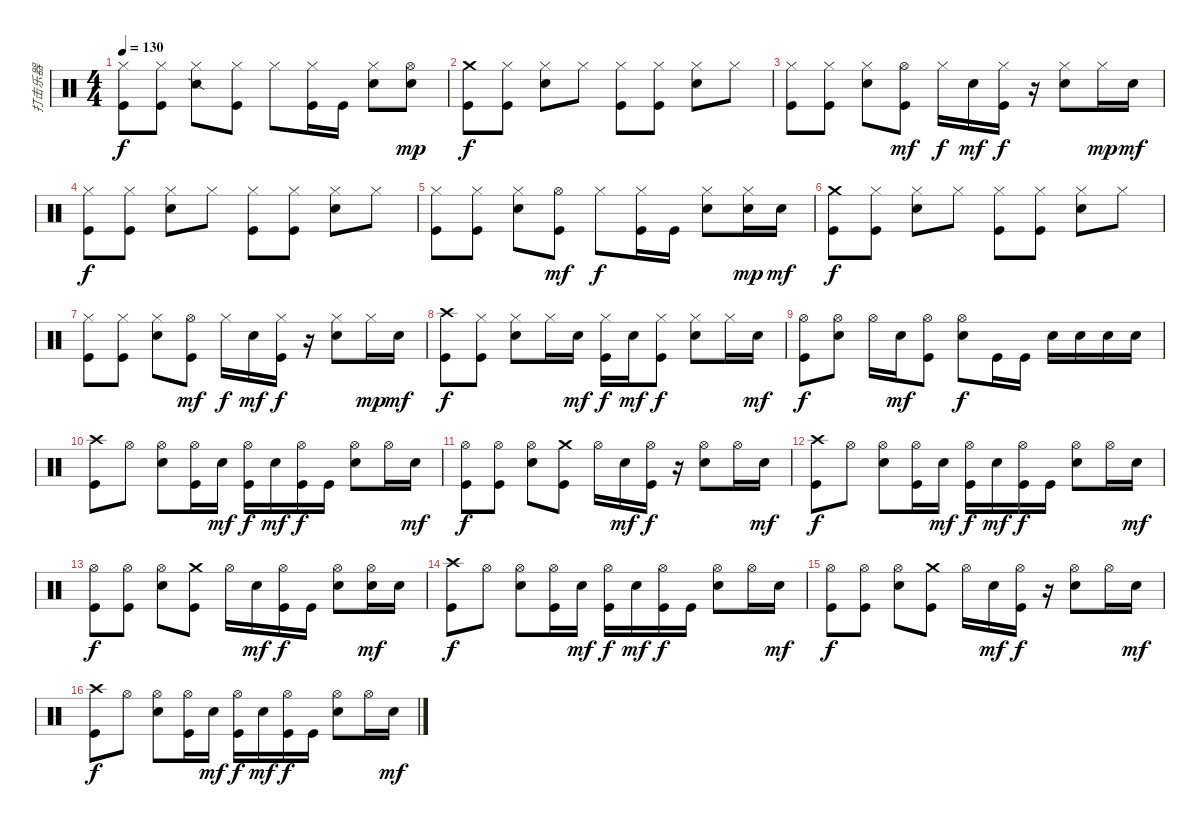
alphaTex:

\track ("打击乐器" "打击乐器") {instrument percussion}
\staff {score}
\articulation defaults
\ts (4 4)
\tempo 130
\clef neutral
\ks c
("Hi-Hat (closed)" "Kick (hit)").8{dy f} ("Hi-Hat (closed)" "Kick (hit)").8 ("Hi-Hat (closed)" "Snare (side stick) 2").8 ("Hi-Hat (closed)" "Kick (hit)").8 "Hi-Hat (closed)".8 ("Hi-Hat (closed)" "Kick (hit)").16 "Kick (hit)".16 ("Hi-Hat (closed)" "Electric Snare (hit)").8 ("Hi-Hat (open)" "Electric Snare (hit)").8{dy mp} |
("Crash medium (hit)" "Kick (hit)").8{dy f} ("Hi-Hat (closed)" "Kick (hit)").8 ("Hi-Hat (closed)" "Electric Snare (hit)").8 "Hi-Hat (closed)".8 ("Hi-Hat (closed)" "Kick (hit)").8 ("Hi-Hat (closed)" "Kick (hit)").8 ("Hi-Hat (closed)" "Electric Snare (hit)").8 "Hi-Hat (closed)".8 |
("Hi-Hat (closed)" "Kick (hit)").8 ("Hi-Hat (closed)" "Kick (hit)").8 ("Hi-Hat (closed)" "Electric Snare (hit)").8 ("Hi-Hat (open)" "Kick (hit)").8{dy mf} "Hi-Hat (closed)".16{dy f} "Electric Snare (hit)".16{dy mf} ("Hi-Hat (closed)" "Kick (hit)").16{dy f} r.16 ("Hi-Hat (closed)" "Electric Snare (hit)").8 "Hi-Hat (closed)".16{dy mp} "Electric Snare (hit)".16{dy mf} |
("Hi-Hat (closed)" "Kick (hit)").8{dy f} ("Hi-Hat (closed)" "Kick (hit)").8 ("Hi-Hat (closed)" "Electric Snare (hit)").8 "Hi-Hat (closed)".8 ("Hi-Hat (closed)" "Kick (hit)").8 ("Hi-Hat (closed)" "Kick (hit)").8 ("Hi-Hat (closed)" "Electric Snare (hit)").8 "Hi-Hat (closed)".8 |
("Hi-Hat (closed)" "Kick (hit)").8 ("Hi-Hat (closed)" "Kick (hit)").8 ("Hi-Hat (closed)" "Electric Snare (hit)").8 ("Hi-Hat (open)" "Kick (hit)").8{dy mf} "Hi-Hat (closed)".8{dy f} ("Hi-Hat (closed)" "Kick (hit)").16 "Kick (hit)".16 ("Hi-Hat (closed)" "Electric Snare (hit)").8 ("Hi-Hat (closed)" "Electric Snare (hit)").16{dy mp} "Electric Snare (hit)".16{dy mf} |
("Crash medium (hit)" "Kick (hit)").8{dy f} ("Hi-Hat (closed)" "Kick (hit)").8 ("Hi-Hat (closed)" "Electric Snare (hit)").8 "Hi-Hat (closed)".8 ("Hi-Hat (closed)" "Kick (hit)").8 ("Hi-Hat (closed)" "Kick (hit)").8 ("Hi-Hat (closed)" "Electric Snare (hit)").8 "Hi-Hat (closed)".8 |
("Hi-Hat (closed)" "Kick (hit)").8 ("Hi-Hat (closed)" "Kick (hit)").8 ("Hi-Hat (closed)" "Electric Snare (hit)").8 ("Hi-Hat (open)" "Kick (hit)").8{dy mf} "Hi-Hat (closed)".16{dy f} "Electric Snare (hit)".16{dy mf} ("Hi-Hat (closed)" "Kick (hit)").16{dy f} r.16 ("Hi-Hat (closed)" "Electric Snare (hit)").8 "Hi-Hat (closed)".16{dy mp} "Electric Snare (hit)".16{dy mf} |
("Crash high (hit)" "Kick (hit)").8{dy f} ("Hi-Hat (closed)" "Kick (hit)").8 ("Hi-Hat (closed)" "Electric Snare (hit)").8 "Hi-Hat (closed)".16 "Electric Snare (hit)".16{dy mf} ("Hi-Hat (closed)" "Kick (hit)").16{dy f} "Electric Snare (hit)".16{dy mf} ("Hi-Hat (closed)" "Kick (hit)").8{dy f} ("Hi-Hat (closed)" "Electric Snare (hit)").8 "Hi-Hat (closed)".16 "Electric Snare (hit)".16{dy mf} |
("Hi-Hat (open)" "Kick (hit)").8{dy f} ("Hi-Hat (open)" "Electric Snare (hit)").8 "Hi-Hat (open)".16 "Electric Snare (hit)".16{dy mf} ("Hi-Hat (open)" "Kick (hit)").8 ("Hi-Hat (open)" "Electric Snare (hit)").8{dy f} "Kick (hit)".16 "Kick (hit)".16 "Electric Snare (hit)".16 "Electric Snare (hit)".16 "Electric Snare (hit)".16 "Electric Snare (hit)".16 |
("Crash high (hit)" "Kick (hit)").8 "Hi-Hat (open)".8 ("Hi-Hat (open)" "Electric Snare (hit)").8 ("Hi-Hat (open)" "Kick (hit)").16 "Electric Snare (hit)".16{dy mf} ("Hi-Hat (open)" "Kick (hit)").16{dy f} "Electric Snare (hit)".16{dy mf} ("Hi-Hat (open)" "Kick (hit)").16{dy f} "Kick (hit)".16 ("Hi-Hat (open)" "Electric Snare (hit)").8 "Hi-Hat (open)".16 "Electric Snare (hit)".16{dy mf} |
("Hi-Hat (open)" "Kick (hit)").8{dy f} ("Hi-Hat (open)" "Kick (hit)").8 ("Hi-Hat (open)" "Electric Snare (hit)").8 ("Crash medium (hit)" "Kick (hit)").8 "Hi-Hat (open)".16 "Electric Snare (hit)".16{dy mf} ("Hi-Hat (open)" "Kick (hit)").16{dy f} r.16 ("Hi-Hat (open)" "Electric Snare (hit)").8 "Hi-Hat (open)".16 "Electric Snare (hit)".16{dy mf} |
("Crash high (hit)" "Kick (hit)").8{dy f} "Hi-Hat (open)".8 ("Hi-Hat (open)" "Electric Snare (hit)").8 ("Hi-Hat (open)" "Kick (hit)").16 "Electric Snare (hit)".16{dy mf} ("Hi-Hat (open)" "Kick (hit)").16{dy f} "Electric Snare (hit)".16{dy mf} ("Hi-Hat (open)" "Kick (hit)").16{dy f} "Kick (hit)".16 ("Hi-Hat (open)" "Electric Snare (hit)").8 "Hi-Hat (open)".16 "Electric Snare (hit)".16{dy mf} |
("Hi-Hat (open)" "Kick (hit)").8{dy f} ("Hi-Hat (open)" "Kick (hit)").8 ("Hi-Hat (open)" "Electric Snare (hit)").8 ("Crash medium (hit)" "Kick (hit)").8 "Hi-Hat (open)".16 "Electric Snare (hit)".16{dy mf} ("Hi-Hat (open)" "Kick (hit)").16{dy f} "Kick (hit)".16 ("Hi-Hat (open)" "Electric Snare (hit)").8 ("Hi-Hat (open)" "Electric Snare (hit)").16{dy mf} "Electric Snare (hit)".16 |
("Crash high (hit)" "Kick (hit)").8{dy f} "Hi-Hat (open)".8 ("Hi-Hat (open)" "Electric Snare (hit)").8 ("Hi-Hat (open)" "Kick (hit)").16 "Electric Snare (hit)".16{dy mf} ("Hi-Hat (open)" "Kick (hit)").16{dy f} "Electric Snare (hit)".16{dy mf} ("Hi-Hat (open)" "Kick (hit)").16{dy f} "Kick (hit)".16 ("Hi-Hat (open)" "Electric Snare (hit)").8 "Hi-Hat (open)".16 "Electric Snare (hit)".16{dy mf} |
("Hi-Hat (open)" "Kick (hit)").8{dy f} ("Hi-Hat (open)" "Kick (hit)").8 ("Hi-Hat (open)" "Electric Snare (hit)").8 ("Crash medium (hit)" "Kick (hit)").8 "Hi-Hat (open)".16 "Electric Snare (hit)".16{dy mf} ("Hi-Hat (open)" "Kick (hit)").16{dy f} r.16 ("Hi-Hat (open)" "Electric Snare (hit)").8 "Hi-Hat (open)".16 "Electric Snare (hit)".16{dy mf} |
("Crash high (hit)" "Kick (hit)").8{dy f} "Hi-Hat (open)".8 ("Hi-Hat (open)" "Electric Snare (hit)").8 ("Hi-Hat (open)" "Kick (hit)").16 "Electric Snare (hit)".16{dy mf} ("Hi-Hat (open)" "Kick (hit)").16{dy f} "Electric Snare (hit)".16{dy mf} ("Hi-Hat (open)" "Kick (hit)").16{dy f} "Kick (hit)".16 ("Hi-Hat (open)" "Electric Snare (hit)").8 "Hi-Hat (open)".16 "Electric Snare (hit)".16{dy mf}
